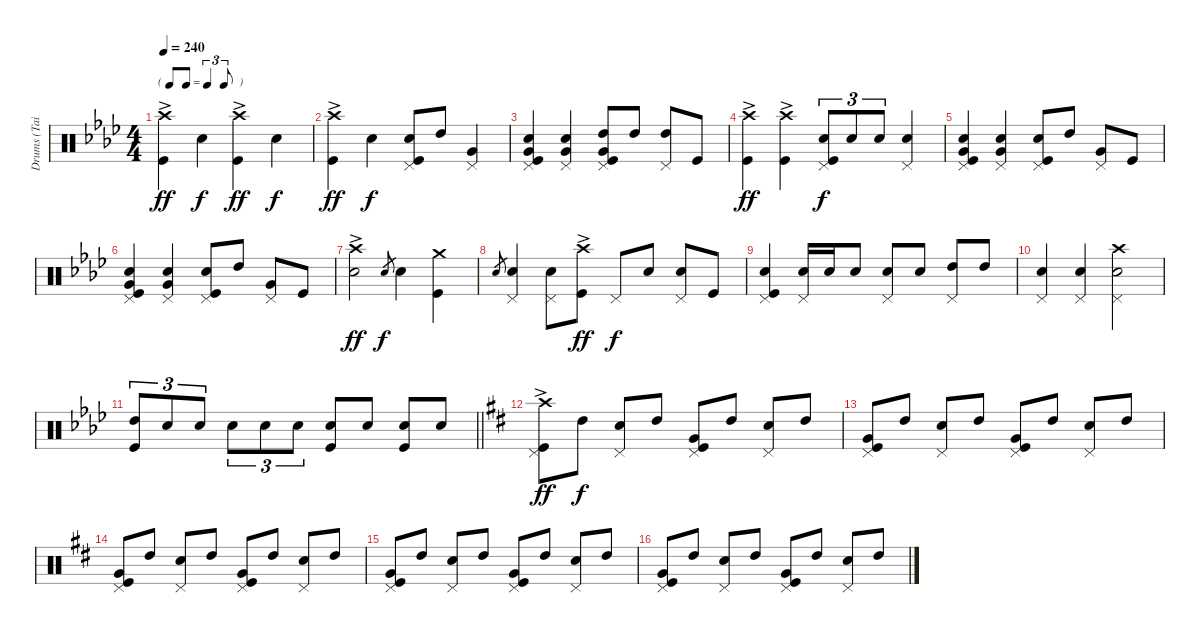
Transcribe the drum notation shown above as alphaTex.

\track ("Drums (Tainaka Ritsu)" "Drums (Tai") {instrument percussion}
\staff {score}
\articulation defaults
\ts (4 4)
\tf triplet8th
\tempo 240
\clef neutral
\ks ab
("Crash high (hit)"{ac} "Kick (hit)").4{dy ff} "Snare (hit) 2".4{dy f} ("Crash high (hit)"{ac} "Kick (hit)").4{dy ff} "Snare (hit) 2".4{dy f} |
("Crash high (hit)"{ac} "Kick (hit)").4{dy ff} "Snare (hit) 2".4{dy f} ("Kick (hit)" "Snare (hit) 2" "Pedal Hi-Hat (hit)").8 "High Tom (hit)".8 ("Very Low Tom (hit)" "Pedal Hi-Hat (hit)").4 |
("Snare (hit) 2" "Very Low Tom (hit)" "Kick (hit)" "Pedal Hi-Hat (hit)").4 ("Snare (hit) 2" "Very Low Tom (hit)" "Pedal Hi-Hat (hit)").4 ("Kick (hit)" "Very Low Tom (hit)" "High Tom (hit)" "Pedal Hi-Hat (hit)").8 "High Tom (hit)".8 ("High Tom (hit)" "Pedal Hi-Hat (hit)").8 "Kick (hit)".8 |
("Crash high (hit)"{ac} "Kick (hit)").4{dy ff} ("Crash high (hit)"{ac} "Kick (hit)").4 ("Pedal Hi-Hat (hit)" "Kick (hit)" "Snare (hit) 2").8{tu (3 2) dy f} "Snare (hit) 2".8{tu (3 2)} "Snare (hit) 2".8{tu (3 2)} ("Snare (hit) 2" "Pedal Hi-Hat (hit)").4 |
("Snare (hit) 2" "Very Low Tom (hit)" "Kick (hit)" "Pedal Hi-Hat (hit)").4 ("Snare (hit) 2" "Very Low Tom (hit)" "Pedal Hi-Hat (hit)").4 ("Pedal Hi-Hat (hit)" "Kick (hit)" "Snare (hit) 2").8 "High Tom (hit)".8 ("Very Low Tom (hit)" "Pedal Hi-Hat (hit)").8 "Kick (hit)".8 |
("Snare (hit) 2" "Very Low Tom (hit)" "Kick (hit)" "Pedal Hi-Hat (hit)").4 ("Snare (hit) 2" "Very Low Tom (hit)" "Pedal Hi-Hat (hit)").4 ("Pedal Hi-Hat (hit)" "Kick (hit)" "Snare (hit) 2").8 "High Tom (hit)".8 ("Very Low Tom (hit)" "Pedal Hi-Hat (hit)").8 "Kick (hit)".8 |
("Snare (hit) 2" "Crash high (hit)"{ac}).2{dy ff} "Snare (hit) 2".8{gr dy f} "Snare (hit) 2".4 ("Crash medium (hit)" "Kick (hit)").4 |
"Snare (hit) 2".8{gr} ("Pedal Hi-Hat (hit)" "Snare (hit) 2").4 ("Snare (hit) 2" "Pedal Hi-Hat (hit)").8 ("Kick (hit)" "Crash high (hit)"{ac}).8{dy ff} "Pedal Hi-Hat (hit)".8{dy f} "Snare (hit) 2".8 ("Snare (hit) 2" "Pedal Hi-Hat (hit)").8 "Kick (hit)".8 |
("Pedal Hi-Hat (hit)" "Kick (hit)" "Snare (hit) 2").4 ("Pedal Hi-Hat (hit)" "Snare (hit) 2").16 "Snare (hit) 2".16 "Snare (hit) 2".8 ("Pedal Hi-Hat (hit)" "Snare (hit) 2").8 "Snare (hit) 2".8 ("Pedal Hi-Hat (hit)" "High Tom (hit)").8 "High Tom (hit)".8 |
("Pedal Hi-Hat (hit)" "Snare (hit) 2").4 ("Snare (hit) 2" "Pedal Hi-Hat (hit)").4 ("Crash high (hit)" "Snare (hit) 2" "Pedal Hi-Hat (hit)").2 |
\barLineRight lightlight
("High Tom (hit)" "Kick (hit)").8{tu (3 2)} "Snare (hit) 2".8{tu (3 2)} "Snare (hit) 2".8{tu (3 2)} "Snare (hit) 2".8{tu (3 2)} "Snare (hit) 2".8{tu (3 2)} "Snare (hit) 2".8{tu (3 2)} ("Snare (hit) 2" "Kick (hit)").8 "Snare (hit) 2".8 ("Snare (hit) 2" "Kick (hit)").8 "Snare (hit) 2".8 |
\ks d
("Crash high (hit)"{ac} "Kick (hit)" "Pedal Hi-Hat (hit)").8{dy ff} "High Tom (hit)".8{dy f} ("Pedal Hi-Hat (hit)" "Snare (hit) 2").8 "High Tom (hit)".8 ("Pedal Hi-Hat (hit)" "Kick (hit)" "Very Low Tom (hit)").8 "High Tom (hit)".8 ("Pedal Hi-Hat (hit)" "Snare (hit) 2").8 "High Tom (hit)".8 |
("Very Low Tom (hit)" "Kick (hit)" "Pedal Hi-Hat (hit)").8 "High Tom (hit)".8 ("Pedal Hi-Hat (hit)" "Snare (hit) 2").8 "High Tom (hit)".8 ("Pedal Hi-Hat (hit)" "Kick (hit)" "Very Low Tom (hit)").8 "High Tom (hit)".8 ("Pedal Hi-Hat (hit)" "Snare (hit) 2").8 "High Tom (hit)".8 |
("Very Low Tom (hit)" "Kick (hit)" "Pedal Hi-Hat (hit)").8 "High Tom (hit)".8 ("Pedal Hi-Hat (hit)" "Snare (hit) 2").8 "High Tom (hit)".8 ("Pedal Hi-Hat (hit)" "Kick (hit)" "Very Low Tom (hit)").8 "High Tom (hit)".8 ("Pedal Hi-Hat (hit)" "Snare (hit) 2").8 "High Tom (hit)".8 |
("Very Low Tom (hit)" "Kick (hit)" "Pedal Hi-Hat (hit)").8 "High Tom (hit)".8 ("Pedal Hi-Hat (hit)" "Snare (hit) 2").8 "High Tom (hit)".8 ("Pedal Hi-Hat (hit)" "Kick (hit)" "Very Low Tom (hit)").8 "High Tom (hit)".8 ("Pedal Hi-Hat (hit)" "Snare (hit) 2").8 "High Tom (hit)".8 |
("Very Low Tom (hit)" "Kick (hit)" "Pedal Hi-Hat (hit)").8 "High Tom (hit)".8 ("Pedal Hi-Hat (hit)" "Snare (hit) 2").8 "High Tom (hit)".8 ("Pedal Hi-Hat (hit)" "Kick (hit)" "Very Low Tom (hit)").8 "High Tom (hit)".8 ("Pedal Hi-Hat (hit)" "Snare (hit) 2").8 "High Tom (hit)".8
